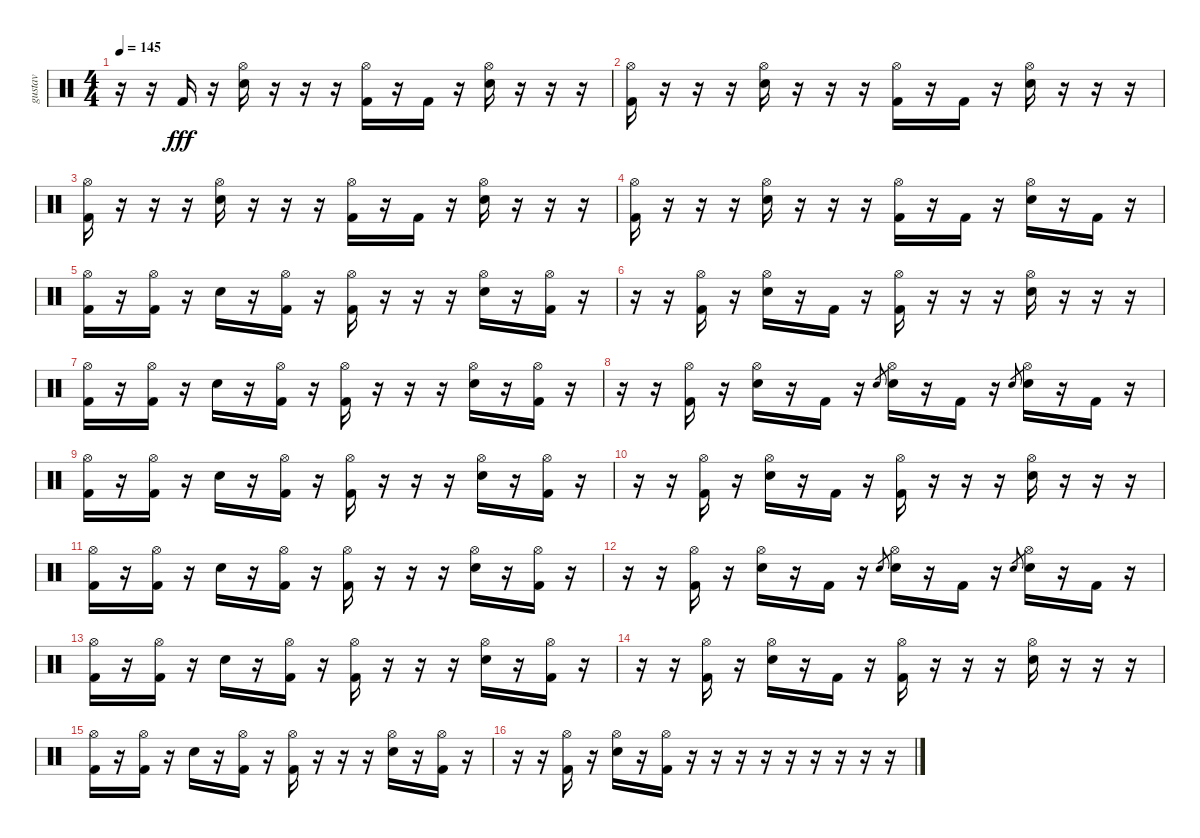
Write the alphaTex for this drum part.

\track ("gustav" "gustav") {instrument percussion}
\staff {score}
\articulation defaults
\ts (4 4)
\tempo 145
\clef neutral
\ks c
r.16{dy fff} r.16 "Kick (hit) 2".16 r.16 ("Hi-Hat (open)" "Electric Snare (hit)").16 r.16 r.16 r.16 ("Hi-Hat (open)" "Kick (hit) 2").16 r.16 "Kick (hit) 2".16 r.16 ("Hi-Hat (open)" "Electric Snare (hit)").16 r.16 r.16 r.16 |
("Hi-Hat (open)" "Kick (hit) 2").16 r.16 r.16 r.16 ("Hi-Hat (open)" "Electric Snare (hit)").16 r.16 r.16 r.16 ("Hi-Hat (open)" "Kick (hit) 2").16 r.16 "Kick (hit) 2".16 r.16 ("Hi-Hat (open)" "Electric Snare (hit)").16 r.16 r.16 r.16 |
("Hi-Hat (open)" "Kick (hit) 2").16 r.16 r.16 r.16 ("Hi-Hat (open)" "Electric Snare (hit)").16 r.16 r.16 r.16 ("Hi-Hat (open)" "Kick (hit) 2").16 r.16 "Kick (hit) 2".16 r.16 ("Hi-Hat (open)" "Electric Snare (hit)").16 r.16 r.16 r.16 |
("Hi-Hat (open)" "Kick (hit) 2").16 r.16 r.16 r.16 ("Hi-Hat (open)" "Electric Snare (hit)").16 r.16 r.16 r.16 ("Hi-Hat (open)" "Kick (hit) 2").16 r.16 "Kick (hit) 2".16 r.16 ("Hi-Hat (open)" "Electric Snare (hit)").16 r.16 "Kick (hit) 2".16 r.16 |
("Hi-Hat (open)" "Kick (hit) 2").16 r.16 ("Hi-Hat (open)" "Kick (hit) 2").16 r.16 "Electric Snare (hit)".16 r.16 ("Hi-Hat (open)" "Kick (hit) 2").16 r.16 ("Hi-Hat (open)" "Kick (hit) 2").16 r.16 r.16 r.16 ("Hi-Hat (open)" "Electric Snare (hit)").16 r.16 ("Hi-Hat (open)" "Kick (hit) 2").16 r.16 |
r.16 r.16 ("Hi-Hat (open)" "Kick (hit) 2").16 r.16 ("Hi-Hat (open)" "Electric Snare (hit)").16 r.16 "Kick (hit) 2".16 r.16 ("Hi-Hat (open)" "Kick (hit) 2").16 r.16 r.16 r.16 ("Hi-Hat (open)" "Electric Snare (hit)").16 r.16 r.16 r.16 |
("Hi-Hat (open)" "Kick (hit) 2").16 r.16 ("Hi-Hat (open)" "Kick (hit) 2").16 r.16 "Electric Snare (hit)".16 r.16 ("Hi-Hat (open)" "Kick (hit) 2").16 r.16 ("Hi-Hat (open)" "Kick (hit) 2").16 r.16 r.16 r.16 ("Hi-Hat (open)" "Electric Snare (hit)").16 r.16 ("Hi-Hat (open)" "Kick (hit) 2").16 r.16 |
r.16 r.16 ("Hi-Hat (open)" "Kick (hit) 2").16 r.16 ("Hi-Hat (open)" "Electric Snare (hit)").16 r.16 "Kick (hit) 2".16 r.16 "Electric Snare (hit)".8{gr} ("Hi-Hat (open)" "Electric Snare (hit)").16 r.16 "Kick (hit) 2".16 r.16 "Electric Snare (hit)".8{gr} ("Hi-Hat (open)" "Electric Snare (hit)").16 r.16 "Kick (hit) 2".16 r.16 |
("Hi-Hat (open)" "Kick (hit) 2").16 r.16 ("Hi-Hat (open)" "Kick (hit) 2").16 r.16 "Electric Snare (hit)".16 r.16 ("Hi-Hat (open)" "Kick (hit) 2").16 r.16 ("Hi-Hat (open)" "Kick (hit) 2").16 r.16 r.16 r.16 ("Hi-Hat (open)" "Electric Snare (hit)").16 r.16 ("Hi-Hat (open)" "Kick (hit) 2").16 r.16 |
r.16 r.16 ("Hi-Hat (open)" "Kick (hit) 2").16 r.16 ("Hi-Hat (open)" "Electric Snare (hit)").16 r.16 "Kick (hit) 2".16 r.16 ("Hi-Hat (open)" "Kick (hit) 2").16 r.16 r.16 r.16 ("Hi-Hat (open)" "Electric Snare (hit)").16 r.16 r.16 r.16 |
("Hi-Hat (open)" "Kick (hit) 2").16 r.16 ("Hi-Hat (open)" "Kick (hit) 2").16 r.16 "Electric Snare (hit)".16 r.16 ("Hi-Hat (open)" "Kick (hit) 2").16 r.16 ("Hi-Hat (open)" "Kick (hit) 2").16 r.16 r.16 r.16 ("Hi-Hat (open)" "Electric Snare (hit)").16 r.16 ("Hi-Hat (open)" "Kick (hit) 2").16 r.16 |
r.16 r.16 ("Hi-Hat (open)" "Kick (hit) 2").16 r.16 ("Hi-Hat (open)" "Electric Snare (hit)").16 r.16 "Kick (hit) 2".16 r.16 "Electric Snare (hit)".8{gr} ("Hi-Hat (open)" "Electric Snare (hit)").16 r.16 "Kick (hit) 2".16 r.16 "Electric Snare (hit)".8{gr} ("Hi-Hat (open)" "Electric Snare (hit)").16 r.16 "Kick (hit) 2".16 r.16 |
("Hi-Hat (open)" "Kick (hit) 2").16 r.16 ("Hi-Hat (open)" "Kick (hit) 2").16 r.16 "Electric Snare (hit)".16 r.16 ("Hi-Hat (open)" "Kick (hit) 2").16 r.16 ("Hi-Hat (open)" "Kick (hit) 2").16 r.16 r.16 r.16 ("Hi-Hat (open)" "Electric Snare (hit)").16 r.16 ("Hi-Hat (open)" "Kick (hit) 2").16 r.16 |
r.16 r.16 ("Hi-Hat (open)" "Kick (hit) 2").16 r.16 ("Hi-Hat (open)" "Electric Snare (hit)").16 r.16 "Kick (hit) 2".16 r.16 ("Hi-Hat (open)" "Kick (hit) 2").16 r.16 r.16 r.16 ("Hi-Hat (open)" "Electric Snare (hit)").16 r.16 r.16 r.16 |
("Hi-Hat (open)" "Kick (hit) 2").16 r.16 ("Hi-Hat (open)" "Kick (hit) 2").16 r.16 "Electric Snare (hit)".16 r.16 ("Hi-Hat (open)" "Kick (hit) 2").16 r.16 ("Hi-Hat (open)" "Kick (hit) 2").16 r.16 r.16 r.16 ("Hi-Hat (open)" "Electric Snare (hit)").16 r.16 ("Hi-Hat (open)" "Kick (hit) 2").16 r.16 |
r.16 r.16 ("Hi-Hat (open)" "Kick (hit) 2").16 r.16 ("Hi-Hat (open)" "Electric Snare (hit)").16 r.16 ("Hi-Hat (open)" "Kick (hit) 2").16 r.16 r.16 r.16 r.16 r.16 r.16 r.16 r.16 r.16
